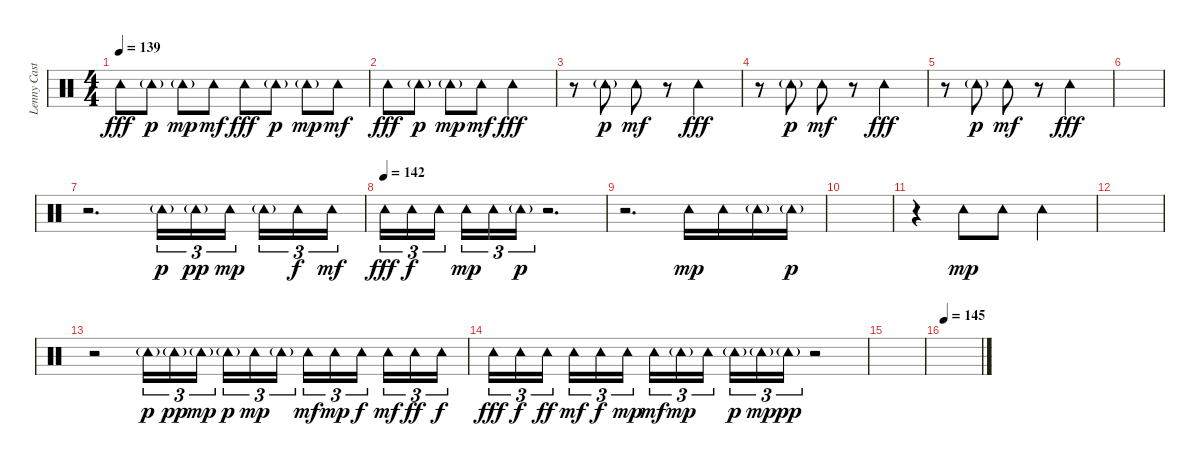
\track ("Lenny Castro - Percussion" "Lenny Cast") {instrument percussion}
\staff {score}
\articulation defaults
\ts (4 4)
\tempo 139
\clef neutral
\ks c "Tambourine (hit)".8{dy fff} "Tambourine (hit)"{g}.8{dy p} "Tambourine (hit)"{g}.8{dy mp} "Tambourine (hit)".8{dy mf} "Tambourine (hit)".8{dy fff} "Tambourine (hit)"{g}.8{dy p} "Tambourine (hit)"{g}.8{dy mp} "Tambourine (hit)".8{dy mf}
|
"Tambourine (hit)".8{dy fff} "Tambourine (hit)"{g}.8{dy p} "Tambourine (hit)"{g}.8{dy mp} "Tambourine (hit)".8{dy mf} "Tambourine (hit)".2{dy fff} |
r.8 "Tambourine (hit)"{g}.8{dy p} "Tambourine (hit)".8{dy mf} r.8 "Tambourine (hit)".2{dy fff} |
r.8 "Tambourine (hit)"{g}.8{dy p} "Tambourine (hit)".8{dy mf} r.8 "Tambourine (hit)".2{dy fff} |
r.8 "Tambourine (hit)"{g}.8{dy p} "Tambourine (hit)".8{dy mf} r.8 "Tambourine (hit)".2{dy fff} |
|
r.2{d} "Tambourine (hit)"{g}.16{tu (3 2) dy p} "Tambourine (hit)"{g}.16{tu (3 2) dy pp} "Tambourine (hit)".16{tu (3 2) dy mp beam splitsecondary} "Tambourine (hit)"{g}.16{tu (3 2)} "Tambourine (hit)".16{tu (3 2) dy f} "Tambourine (hit)".16{tu (3 2) dy mf} |
\tempo (142)
"Tambourine (hit)".16{tu (3 2) dy fff} "Tambourine (hit)".16{tu (3 2) dy f} "Tambourine (hit)".16{tu (3 2) beam splitsecondary} "Tambourine (hit)".16{tu (3 2) dy mp} "Tambourine (hit)".16{tu (3 2)} "Tambourine (hit)"{g}.16{tu (3 2) dy p} r.2{d} |
r.2{d} "Tambourine (hit)".16{dy mp} "Tambourine (hit)".16 "Tambourine (hit)"{g}.16 "Tambourine (hit)"{g}.16{dy p} |
|
r.4 "Tambourine (hit)".8{dy mp} "Tambourine (hit)".8 "Tambourine (hit)".2 |
|
r.2 "Tambourine (hit)"{g}.16{tu (3 2) dy p} "Tambourine (hit)"{g}.16{tu (3 2) dy pp} "Tambourine (hit)"{g}.16{tu (3 2) dy mp beam splitsecondary} "Tambourine (hit)"{g}.16{tu (3 2) dy p} "Tambourine (hit)".16{tu (3 2) dy mp} "Tambourine (hit)"{g}.16{tu (3 2)} "Tambourine (hit)".16{tu (3 2) dy mf} "Tambourine (hit)".16{tu (3 2) dy mp} "Tambourine (hit)".16{tu (3 2) dy f beam splitsecondary} "Tambourine (hit)".16{tu (3 2) dy mf} "Tambourine (hit)".16{tu (3 2) dy ff} "Tambourine (hit)".16{tu (3 2) dy f} |
"Tambourine (hit)".16{tu (3 2) dy fff} "Tambourine (hit)".16{tu (3 2) dy f} "Tambourine (hit)".16{tu (3 2) dy ff beam splitsecondary} "Tambourine (hit)".16{tu (3 2) dy mf} "Tambourine (hit)".16{tu (3 2) dy f} "Tambourine (hit)".16{tu (3 2) dy mp} "Tambourine (hit)".16{tu (3 2) dy mf} "Tambourine (hit)"{g}.16{tu (3 2) dy mp} "Tambourine (hit)".16{tu (3 2) beam splitsecondary} "Tambourine (hit)"{g}.16{tu (3 2) dy p} "Tambourine (hit)"{g}.16{tu (3 2) dy mp} "Tambourine (hit)"{g}.16{tu (3 2) dy pp} r.2 |
|
\tempo 145
